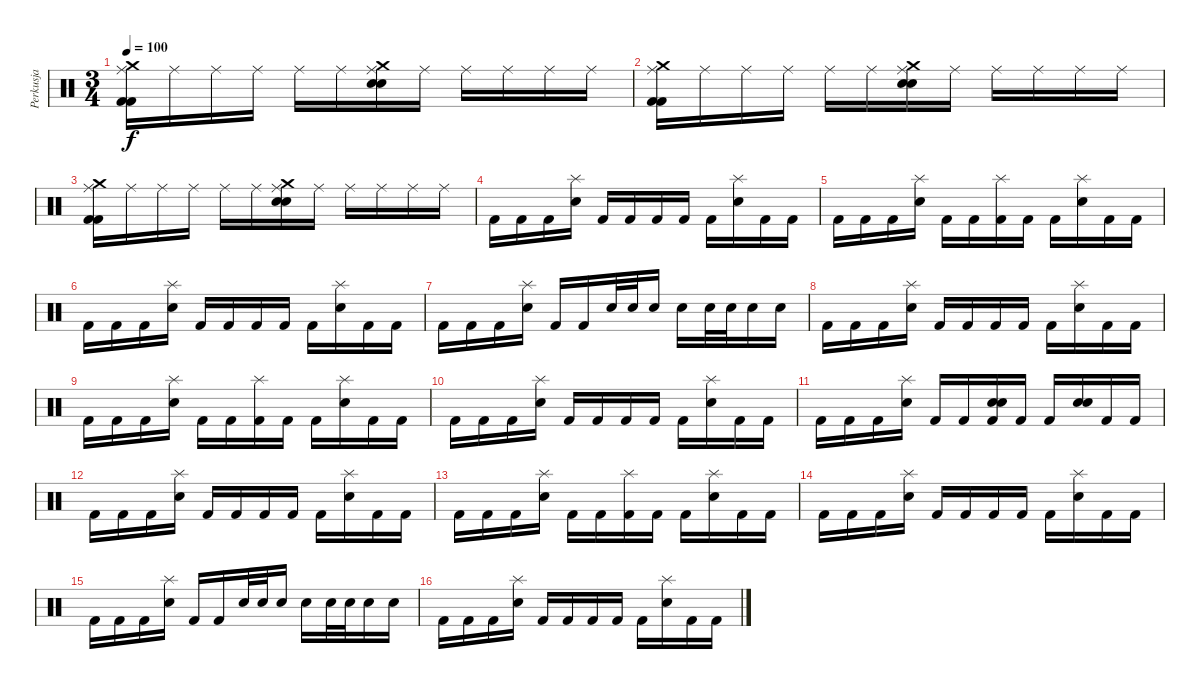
\track ("Perkusja" "Perkusja") {instrument percussion}
\staff {score}
\articulation defaults
\ts (3 4)
\tempo 100
\clef neutral
\ks c
("Crash medium (hit)" "Ride (middle)" "Kick (hit) 2" "Kick (hit) 2").16{dy f} "Ride (middle)".16 "Ride (middle)".16 "Ride (middle)".16 "Ride (middle)".16 "Ride (middle)".16 ("Crash medium (hit)" "Ride (middle)" "Snare (hit) 2" "Snare (hit) 2").16 "Ride (middle)".16 "Ride (middle)".16 "Ride (middle)".16 "Ride (middle)".16 "Ride (middle)".16 |
("Crash medium (hit)" "Ride (middle)" "Kick (hit) 2" "Kick (hit) 2").16 "Ride (middle)".16 "Ride (middle)".16 "Ride (middle)".16 "Ride (middle)".16 "Ride (middle)".16 ("Crash medium (hit)" "Ride (middle)" "Snare (hit) 2" "Snare (hit) 2").16 "Ride (middle)".16 "Ride (middle)".16 "Ride (middle)".16 "Ride (middle)".16 "Ride (middle)".16 |
("Crash medium (hit)" "Ride (middle)" "Kick (hit) 2" "Kick (hit) 2").16 "Ride (middle)".16 "Ride (middle)".16 "Ride (middle)".16 "Ride (middle)".16 "Ride (middle)".16 ("Crash medium (hit)" "Ride (middle)" "Snare (hit) 2" "Snare (hit) 2").16 "Ride (middle)".16 "Ride (middle)".16 "Ride (middle)".16 "Ride (middle)".16 "Ride (middle)".16 |
"Kick (hit) 2".16 "Kick (hit) 2".16 "Kick (hit) 2".16 ("Splash (hit)" "Snare (hit) 2").16 "Kick (hit) 2".16 "Kick (hit) 2".16 "Kick (hit) 2".16 "Kick (hit) 2".16 "Kick (hit) 2".16 ("Splash (hit)" "Snare (hit) 2").16 "Kick (hit) 2".16 "Kick (hit) 2".16 |
"Kick (hit) 2".16 "Kick (hit) 2".16 "Kick (hit) 2".16 ("Splash (hit)" "Snare (hit) 2").16 "Kick (hit) 2".16 "Kick (hit) 2".16 ("Splash (hit)" "Kick (hit) 2").16 "Kick (hit) 2".16 "Kick (hit) 2".16 ("Splash (hit)" "Snare (hit) 2").16 "Kick (hit) 2".16 "Kick (hit) 2".16 |
"Kick (hit) 2".16 "Kick (hit) 2".16 "Kick (hit) 2".16 ("Splash (hit)" "Snare (hit) 2").16 "Kick (hit) 2".16 "Kick (hit) 2".16 "Kick (hit) 2".16 "Kick (hit) 2".16 "Kick (hit) 2".16 ("Splash (hit)" "Snare (hit) 2").16 "Kick (hit) 2".16 "Kick (hit) 2".16 |
"Kick (hit) 2".16 "Kick (hit) 2".16 "Kick (hit) 2".16 ("Splash (hit)" "Snare (hit) 2").16 "Kick (hit) 2".16 "Kick (hit) 2".16 "Snare (hit) 2".32 "Snare (hit) 2".32 "Snare (hit) 2".16 "Snare (hit) 2".16 "Snare (hit) 2".32 "Snare (hit) 2".32 "Snare (hit) 2".16 "Snare (hit) 2".16 |
"Kick (hit) 2".16 "Kick (hit) 2".16 "Kick (hit) 2".16 ("Splash (hit)" "Snare (hit) 2").16 "Kick (hit) 2".16 "Kick (hit) 2".16 "Kick (hit) 2".16 "Kick (hit) 2".16 "Kick (hit) 2".16 ("Splash (hit)" "Snare (hit) 2").16 "Kick (hit) 2".16 "Kick (hit) 2".16 |
"Kick (hit) 2".16 "Kick (hit) 2".16 "Kick (hit) 2".16 ("Splash (hit)" "Snare (hit) 2").16 "Kick (hit) 2".16 "Kick (hit) 2".16 ("Splash (hit)" "Kick (hit) 2").16 "Kick (hit) 2".16 "Kick (hit) 2".16 ("Splash (hit)" "Snare (hit) 2").16 "Kick (hit) 2".16 "Kick (hit) 2".16 |
"Kick (hit) 2".16 "Kick (hit) 2".16 "Kick (hit) 2".16 ("Splash (hit)" "Snare (hit) 2").16 "Kick (hit) 2".16 "Kick (hit) 2".16 "Kick (hit) 2".16 "Kick (hit) 2".16 "Kick (hit) 2".16 ("Splash (hit)" "Snare (hit) 2").16 "Kick (hit) 2".16 "Kick (hit) 2".16 |
"Kick (hit) 2".16 "Kick (hit) 2".16 "Kick (hit) 2".16 ("Splash (hit)" "Snare (hit) 2").16 "Kick (hit) 2".16 "Kick (hit) 2".16 ("Snare (hit) 2" "Snare (hit) 2" "Kick (hit) 2").16 "Kick (hit) 2".16 "Kick (hit) 2".16 ("Snare (hit) 2" "Snare (hit) 2").16 "Kick (hit) 2".16 "Kick (hit) 2".16 |
"Kick (hit) 2".16 "Kick (hit) 2".16 "Kick (hit) 2".16 ("Splash (hit)" "Snare (hit) 2").16 "Kick (hit) 2".16 "Kick (hit) 2".16 "Kick (hit) 2".16 "Kick (hit) 2".16 "Kick (hit) 2".16 ("Splash (hit)" "Snare (hit) 2").16 "Kick (hit) 2".16 "Kick (hit) 2".16 |
"Kick (hit) 2".16 "Kick (hit) 2".16 "Kick (hit) 2".16 ("Splash (hit)" "Snare (hit) 2").16 "Kick (hit) 2".16 "Kick (hit) 2".16 ("Splash (hit)" "Kick (hit) 2").16 "Kick (hit) 2".16 "Kick (hit) 2".16 ("Splash (hit)" "Snare (hit) 2").16 "Kick (hit) 2".16 "Kick (hit) 2".16 |
"Kick (hit) 2".16 "Kick (hit) 2".16 "Kick (hit) 2".16 ("Splash (hit)" "Snare (hit) 2").16 "Kick (hit) 2".16 "Kick (hit) 2".16 "Kick (hit) 2".16 "Kick (hit) 2".16 "Kick (hit) 2".16 ("Splash (hit)" "Snare (hit) 2").16 "Kick (hit) 2".16 "Kick (hit) 2".16 |
"Kick (hit) 2".16 "Kick (hit) 2".16 "Kick (hit) 2".16 ("Splash (hit)" "Snare (hit) 2").16 "Kick (hit) 2".16 "Kick (hit) 2".16 "Snare (hit) 2".32 "Snare (hit) 2".32 "Snare (hit) 2".16 "Snare (hit) 2".16 "Snare (hit) 2".32 "Snare (hit) 2".32 "Snare (hit) 2".16 "Snare (hit) 2".16 |
"Kick (hit) 2".16 "Kick (hit) 2".16 "Kick (hit) 2".16 ("Splash (hit)" "Snare (hit) 2").16 "Kick (hit) 2".16 "Kick (hit) 2".16 "Kick (hit) 2".16 "Kick (hit) 2".16 "Kick (hit) 2".16 ("Splash (hit)" "Snare (hit) 2").16 "Kick (hit) 2".16 "Kick (hit) 2".16
